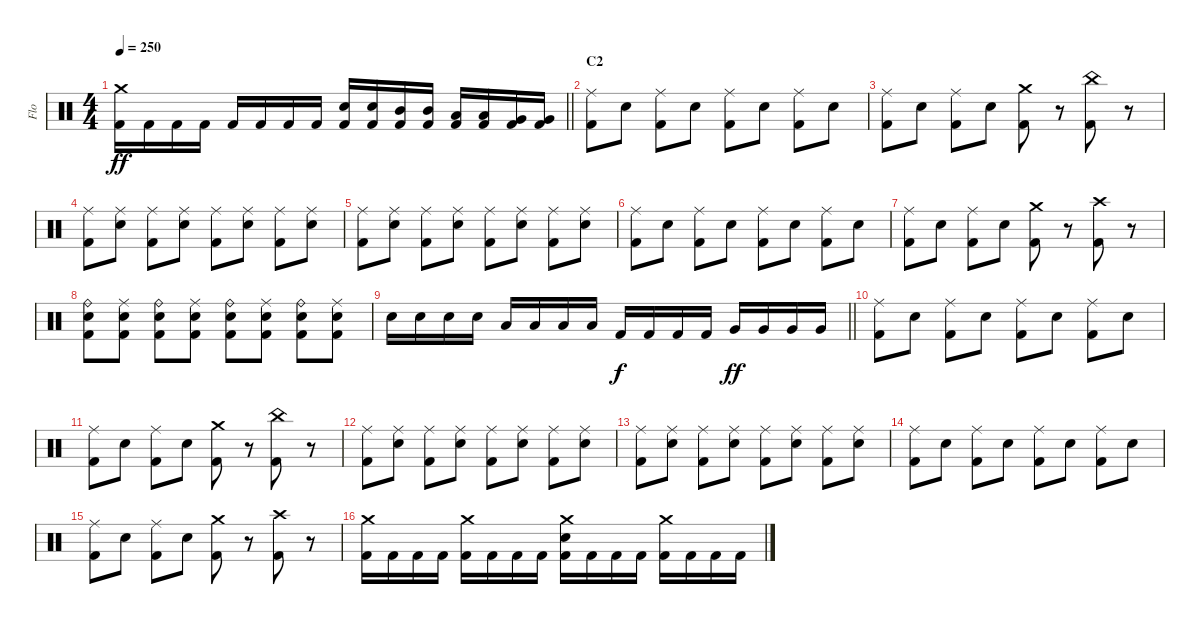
\track ("Flo" "Flo") {instrument percussion}
\staff {score}
\articulation defaults
\ts (4 4)
\tempo 250
\clef neutral
\barLineRight lightlight
\ks c
("Crash medium (hit)" "Kick (hit) 2").16{dy ff} "Kick (hit) 2".16 "Kick (hit) 2".16 "Kick (hit) 2".16 "Kick (hit) 2".16 "Kick (hit) 2".16 "Kick (hit) 2".16 "Kick (hit) 2".16 ("Electric Snare (hit)" "Kick (hit) 2").16 ("Electric Snare (hit)" "Kick (hit) 2").16 ("Mid Tom (hit)" "Kick (hit) 2").16 ("Mid Tom (hit)" "Kick (hit) 2").16 ("Low Tom (hit)" "Kick (hit) 2").16 ("Low Tom (hit)" "Kick (hit) 2").16 ("Very Low Tom (hit)" "Kick (hit) 2").16 ("Very Low Tom (hit)" "Kick (hit) 2").16 |
\section ("" "C2")
("Ride (middle)" "Kick (hit) 2").8 "Electric Snare (hit)".8 ("Ride (middle)" "Kick (hit) 2").8 "Electric Snare (hit)".8 ("Ride (middle)" "Kick (hit) 2").8 "Electric Snare (hit)".8 ("Ride (middle)" "Kick (hit) 2").8 "Electric Snare (hit)".8 |
("Ride (middle)" "Kick (hit) 2").8 "Electric Snare (hit)".8 ("Ride (middle)" "Kick (hit) 2").8 "Electric Snare (hit)".8 ("Crash medium (hit)" "Kick (hit) 2").8 r.8 ("China (hit)" "Kick (hit) 2").8 r.8 |
("Ride (middle)" "Kick (hit) 2").8 ("Ride (middle)" "Electric Snare (hit)").8 ("Ride (middle)" "Kick (hit) 2").8 ("Ride (middle)" "Electric Snare (hit)").8 ("Ride (middle)" "Kick (hit) 2").8 ("Ride (middle)" "Electric Snare (hit)").8 ("Ride (middle)" "Kick (hit) 2").8 ("Ride (middle)" "Electric Snare (hit)").8 |
("Ride (middle)" "Kick (hit) 2").8 ("Ride (middle)" "Electric Snare (hit)").8 ("Ride (middle)" "Kick (hit) 2").8 ("Ride (middle)" "Electric Snare (hit)").8 ("Ride (middle)" "Kick (hit) 2").8 ("Ride (middle)" "Electric Snare (hit)").8 ("Ride (middle)" "Kick (hit) 2").8 ("Ride (middle)" "Electric Snare (hit)").8 |
("Ride (middle)" "Kick (hit) 2").8 "Electric Snare (hit)".8 ("Ride (middle)" "Kick (hit) 2").8 "Electric Snare (hit)".8 ("Ride (middle)" "Kick (hit) 2").8 "Electric Snare (hit)".8 ("Ride (middle)" "Kick (hit) 2").8 "Electric Snare (hit)".8 |
("Ride (middle)" "Kick (hit) 2").8 "Electric Snare (hit)".8 ("Ride (middle)" "Kick (hit) 2").8 "Electric Snare (hit)".8 ("Crash medium (hit)" "Kick (hit) 2").8 r.8 ("Crash high (hit)" "Kick (hit) 2").8 r.8 |
("Ride (bell)" "Electric Snare (hit)" "Kick (hit) 2").8 ("Ride (middle)" "Electric Snare (hit)" "Kick (hit) 2").8 ("Ride (bell)" "Electric Snare (hit)" "Kick (hit) 2").8 ("Ride (middle)" "Electric Snare (hit)" "Kick (hit) 2").8 ("Ride (bell)" "Electric Snare (hit)" "Kick (hit) 2").8 ("Ride (middle)" "Electric Snare (hit)" "Kick (hit) 2").8 ("Ride (bell)" "Electric Snare (hit)" "Kick (hit) 2").8 ("Ride (middle)" "Electric Snare (hit)" "Kick (hit) 2").8 |
\barLineRight lightlight "Electric Snare (hit)".16 "Electric Snare (hit)".16 "Electric Snare (hit)".16 "Electric Snare (hit)".16 "Low Tom (hit)".16 "Low Tom (hit)".16 "Low Tom (hit)".16 "Low Tom (hit)".16 "Kick (hit) 2".16{dy f} "Kick (hit) 2".16 "Kick (hit) 2".16 "Kick (hit) 2".16 "Very Low Tom (hit)".16{dy ff} "Very Low Tom (hit)".16 "Very Low Tom (hit)".16 "Very Low Tom (hit)".16
|
("Ride (middle)" "Kick (hit) 2").8 "Electric Snare (hit)".8 ("Ride (middle)" "Kick (hit) 2").8 "Electric Snare (hit)".8 ("Ride (middle)" "Kick (hit) 2").8 "Electric Snare (hit)".8 ("Ride (middle)" "Kick (hit) 2").8 "Electric Snare (hit)".8 |
("Ride (middle)" "Kick (hit) 2").8 "Electric Snare (hit)".8 ("Ride (middle)" "Kick (hit) 2").8 "Electric Snare (hit)".8 ("Crash medium (hit)" "Kick (hit) 2").8 r.8 ("China (hit)" "Kick (hit) 2").8 r.8 |
("Ride (middle)" "Kick (hit) 2").8 ("Ride (middle)" "Electric Snare (hit)").8 ("Ride (middle)" "Kick (hit) 2").8 ("Ride (middle)" "Electric Snare (hit)").8 ("Ride (middle)" "Kick (hit) 2").8 ("Ride (middle)" "Electric Snare (hit)").8 ("Ride (middle)" "Kick (hit) 2").8 ("Ride (middle)" "Electric Snare (hit)").8 |
("Ride (middle)" "Kick (hit) 2").8 ("Ride (middle)" "Electric Snare (hit)").8 ("Ride (middle)" "Kick (hit) 2").8 ("Ride (middle)" "Electric Snare (hit)").8 ("Ride (middle)" "Kick (hit) 2").8 ("Ride (middle)" "Electric Snare (hit)").8 ("Ride (middle)" "Kick (hit) 2").8 ("Ride (middle)" "Electric Snare (hit)").8 |
("Ride (middle)" "Kick (hit) 2").8 "Electric Snare (hit)".8 ("Ride (middle)" "Kick (hit) 2").8 "Electric Snare (hit)".8 ("Ride (middle)" "Kick (hit) 2").8 "Electric Snare (hit)".8 ("Ride (middle)" "Kick (hit) 2").8 "Electric Snare (hit)".8 |
("Ride (middle)" "Kick (hit) 2").8 "Electric Snare (hit)".8 ("Ride (middle)" "Kick (hit) 2").8 "Electric Snare (hit)".8 ("Crash medium (hit)" "Kick (hit) 2").8 r.8 ("Crash high (hit)" "Kick (hit) 2").8 r.8 |
("Crash medium (hit)" "Kick (hit) 2").16 "Kick (hit) 2".16 "Kick (hit) 2".16 "Kick (hit) 2".16 ("Crash medium (hit)" "Kick (hit) 2").16 "Kick (hit) 2".16 "Kick (hit) 2".16 "Kick (hit) 2".16 ("Crash medium (hit)" "Electric Snare (hit)" "Kick (hit) 2").16 "Kick (hit) 2".16 "Kick (hit) 2".16 "Kick (hit) 2".16 ("Crash medium (hit)" "Kick (hit) 2").16 "Kick (hit) 2".16 "Kick (hit) 2".16 "Kick (hit) 2".16
